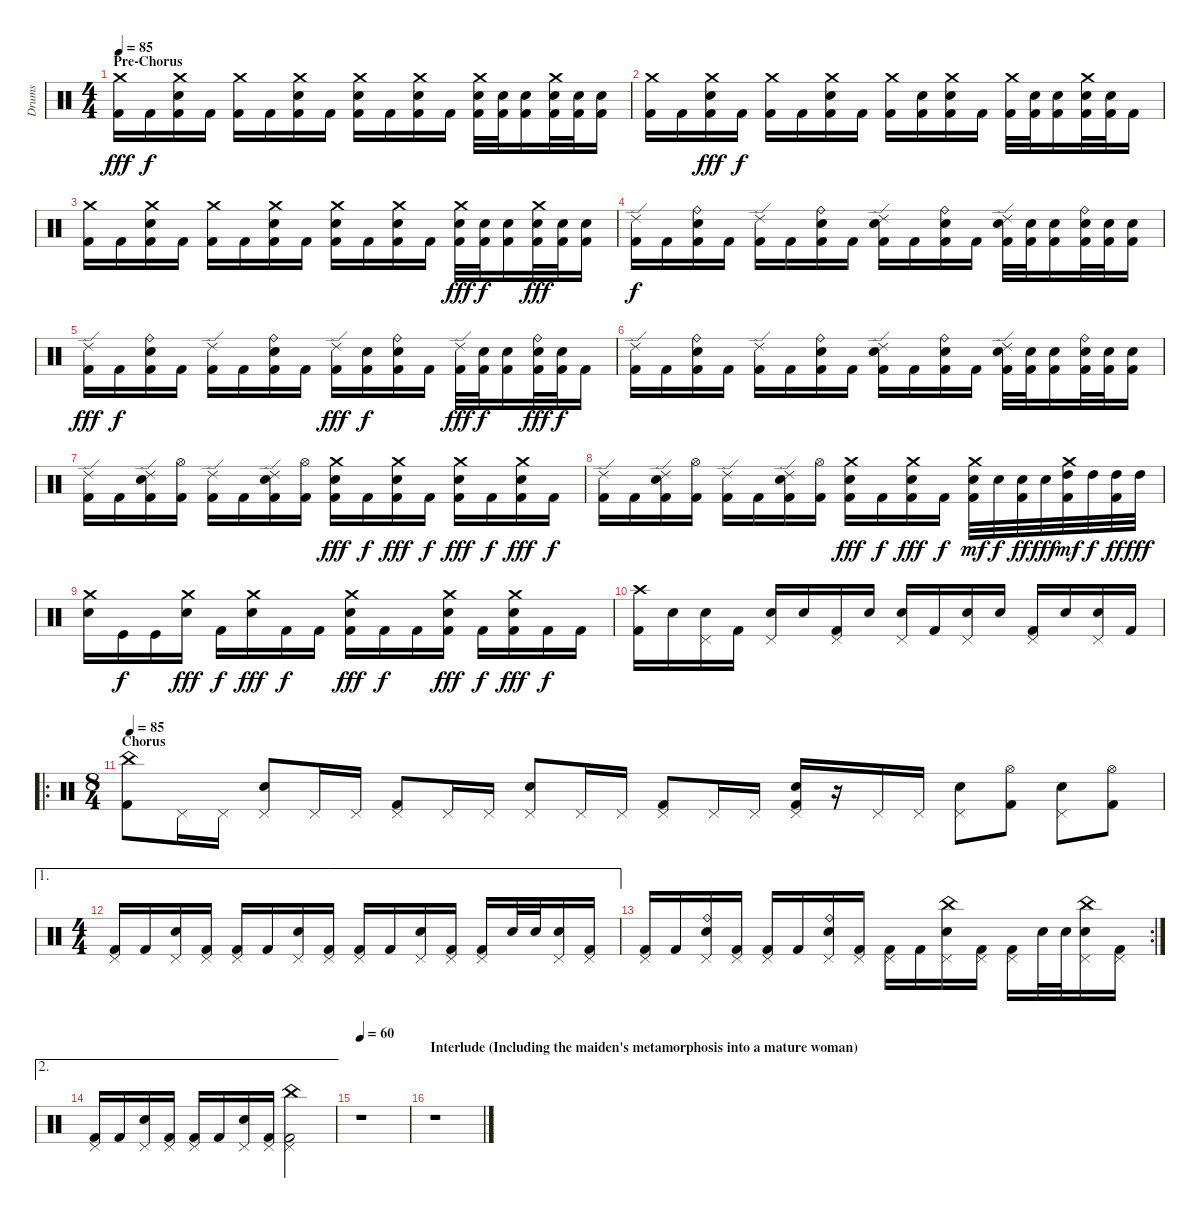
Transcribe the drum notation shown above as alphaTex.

\track ("Drums" "Drums") {instrument percussion}
\staff {score}
\articulation defaults
\ts (4 4)
\section ("" "Pre-Chorus")
\tempo 85
\clef neutral
\ks c
("Crash medium (hit)" "Kick (hit) 2").16{dy fff} "Kick (hit) 2".16{dy f} ("Crash medium (hit)" "Electric Snare (hit)" "Kick (hit) 2").16 "Kick (hit) 2".16 ("Crash medium (hit)" "Kick (hit) 2").16 "Kick (hit) 2".16 ("Crash medium (hit)" "Electric Snare (hit)" "Kick (hit) 2").16 "Kick (hit) 2".16 ("Crash medium (hit)" "Electric Snare (hit)" "Kick (hit) 2").16 "Kick (hit) 2".16 ("Crash medium (hit)" "Electric Snare (hit)" "Kick (hit) 2").16 "Kick (hit) 2".16 ("Crash medium (hit)" "Electric Snare (hit)" "Kick (hit) 2").32 ("Electric Snare (hit)" "Kick (hit) 2").32 ("Electric Snare (hit)" "Kick (hit) 2").16 ("Crash medium (hit)" "Electric Snare (hit)" "Kick (hit) 2").32 ("Electric Snare (hit)" "Kick (hit) 2").32 ("Electric Snare (hit)" "Kick (hit) 2").16 |
("Crash medium (hit)" "Kick (hit) 2").16 "Kick (hit) 2".16 ("Crash medium (hit)" "Electric Snare (hit)" "Kick (hit) 2").16{dy fff} "Kick (hit) 2".16{dy f} ("Crash medium (hit)" "Kick (hit) 2").16 "Kick (hit) 2".16 ("Crash medium (hit)" "Electric Snare (hit)" "Kick (hit) 2").16 "Kick (hit) 2".16 ("Crash medium (hit)" "Kick (hit) 2").16 ("Electric Snare (hit)" "Kick (hit) 2").16 ("Crash medium (hit)" "Electric Snare (hit)" "Kick (hit) 2").16 "Kick (hit) 2".16 ("Crash medium (hit)" "Kick (hit) 2").32 ("Electric Snare (hit)" "Kick (hit) 2").32 ("Electric Snare (hit)" "Kick (hit) 2").16 ("Crash medium (hit)" "Electric Snare (hit)" "Kick (hit) 2").32 ("Electric Snare (hit)" "Kick (hit) 2").32 "Kick (hit) 2".16 |
("Crash medium (hit)" "Kick (hit) 2").16 "Kick (hit) 2".16 ("Crash medium (hit)" "Electric Snare (hit)" "Kick (hit) 2").16 "Kick (hit) 2".16 ("Crash medium (hit)" "Kick (hit) 2").16 "Kick (hit) 2".16 ("Crash medium (hit)" "Electric Snare (hit)" "Kick (hit) 2").16 "Kick (hit) 2".16 ("Crash medium (hit)" "Electric Snare (hit)" "Kick (hit) 2").16 "Kick (hit) 2".16 ("Crash medium (hit)" "Electric Snare (hit)" "Kick (hit) 2").16 "Kick (hit) 2".16 ("Crash medium (hit)" "Electric Snare (hit)" "Kick (hit) 2").32{dy fff} ("Electric Snare (hit)" "Kick (hit) 2").32{dy f} ("Electric Snare (hit)" "Kick (hit) 2").16 ("Crash medium (hit)" "Electric Snare (hit)" "Kick (hit) 2").32{dy fff} ("Electric Snare (hit)" "Kick (hit) 2").32 ("Electric Snare (hit)" "Kick (hit) 2").16 |
("Ride (edge) 2" "Kick (hit) 2").16{dy f} "Kick (hit) 2".16 ("Ride (bell)" "Electric Snare (hit)" "Kick (hit) 2").16 "Kick (hit) 2".16 ("Ride (edge) 2" "Kick (hit) 2").16 "Kick (hit) 2".16 ("Ride (bell)" "Electric Snare (hit)" "Kick (hit) 2").16 "Kick (hit) 2".16 ("Ride (edge) 2" "Electric Snare (hit)" "Kick (hit) 2").16 "Kick (hit) 2".16 ("Ride (bell)" "Electric Snare (hit)" "Kick (hit) 2").16 "Kick (hit) 2".16 ("Ride (edge) 2" "Electric Snare (hit)" "Kick (hit) 2").32 ("Electric Snare (hit)" "Kick (hit) 2").32 ("Electric Snare (hit)" "Kick (hit) 2").16 ("Ride (bell)" "Electric Snare (hit)" "Kick (hit) 2").32 ("Electric Snare (hit)" "Kick (hit) 2").32 ("Electric Snare (hit)" "Kick (hit) 2").16 |
("Ride (edge) 2" "Kick (hit) 2").16{dy fff} "Kick (hit) 2".16{dy f} ("Ride (bell)" "Electric Snare (hit)" "Kick (hit) 2").16 "Kick (hit) 2".16 ("Ride (edge) 2" "Kick (hit) 2").16 "Kick (hit) 2".16 ("Ride (bell)" "Electric Snare (hit)" "Kick (hit) 2").16 "Kick (hit) 2".16 ("Ride (edge) 2" "Kick (hit) 2").16{dy fff} ("Electric Snare (hit)" "Kick (hit) 2").16{dy f} ("Ride (bell)" "Electric Snare (hit)" "Kick (hit) 2").16 "Kick (hit) 2".16 ("Ride (edge) 2" "Kick (hit) 2").32{dy fff} ("Electric Snare (hit)" "Kick (hit) 2").32{dy f} ("Electric Snare (hit)" "Kick (hit) 2").16 ("Ride (bell)" "Electric Snare (hit)" "Kick (hit) 2").32{dy fff} ("Electric Snare (hit)" "Kick (hit) 2").32{dy f} "Kick (hit) 2".16 |
("Ride (edge) 2" "Kick (hit) 2").16 "Kick (hit) 2".16 ("Ride (bell)" "Electric Snare (hit)" "Kick (hit) 2").16 "Kick (hit) 2".16 ("Ride (edge) 2" "Kick (hit) 2").16 "Kick (hit) 2".16 ("Ride (bell)" "Electric Snare (hit)" "Kick (hit) 2").16 "Kick (hit) 2".16 ("Ride (edge) 2" "Electric Snare (hit)" "Kick (hit) 2").16 "Kick (hit) 2".16 ("Ride (bell)" "Electric Snare (hit)" "Kick (hit) 2").16 "Kick (hit) 2".16 ("Ride (edge) 2" "Electric Snare (hit)" "Kick (hit) 2").32 ("Electric Snare (hit)" "Kick (hit) 2").32 ("Electric Snare (hit)" "Kick (hit) 2").16 ("Ride (bell)" "Electric Snare (hit)" "Kick (hit) 2").32 ("Electric Snare (hit)" "Kick (hit) 2").32 ("Electric Snare (hit)" "Kick (hit) 2").16 |
("Ride (edge) 2" "Kick (hit) 2").16 "Kick (hit) 2".16 ("Ride (edge) 2" "Electric Snare (hit)" "Kick (hit) 2").16 ("Hi-Hat (open)" "Kick (hit) 2").16 ("Ride (edge) 2" "Kick (hit) 2").16 "Kick (hit) 2".16 ("Ride (edge) 2" "Electric Snare (hit)" "Kick (hit) 2").16 ("Hi-Hat (open)" "Kick (hit) 2").16 ("Crash medium (hit)" "Electric Snare (hit)" "Kick (hit) 2").16{dy fff} "Kick (hit) 2".16{dy f} ("Crash medium (hit)" "Electric Snare (hit)" "Kick (hit) 2").16{dy fff} "Kick (hit) 2".16{dy f} ("Crash medium (hit)" "Electric Snare (hit)" "Kick (hit) 2").16{dy fff} "Kick (hit) 2".16{dy f} ("Crash medium (hit)" "Electric Snare (hit)" "Kick (hit) 2").16{dy fff} "Kick (hit) 2".16{dy f} |
("Ride (edge) 2" "Kick (hit) 2").16 "Kick (hit) 2".16 ("Ride (edge) 2" "Electric Snare (hit)" "Kick (hit) 2").16 ("Hi-Hat (open)" "Kick (hit) 2").16 ("Ride (edge) 2" "Kick (hit) 2").16 "Kick (hit) 2".16 ("Ride (edge) 2" "Electric Snare (hit)" "Kick (hit) 2").16 ("Hi-Hat (open)" "Kick (hit) 2").16 ("Crash medium (hit)" "Electric Snare (hit)" "Kick (hit) 2").16{dy fff} "Kick (hit) 2".16{dy f} ("Crash medium (hit)" "Electric Snare (hit)" "Kick (hit) 2").16{dy fff} "Kick (hit) 2".16{dy f} ("Crash medium (hit)" "Electric Snare (hit)" "Kick (hit) 2").32{dy mf} "Electric Snare (hit)".32{dy f} ("Electric Snare (hit)" "Kick (hit) 2").32{dy ff} "Electric Snare (hit)".32{dy fff} ("Crash medium (hit)" "High Tom (hit)" "Kick (hit) 2").32{dy mf} "High Tom (hit)".32{dy f} ("High Tom (hit)" "Kick (hit) 2").32{dy ff} "High Tom (hit)".32{dy fff} |
("Crash medium (hit)" "Electric Snare (hit)").16 "Kick (hit)".16{dy f} "Kick (hit)".16 ("Crash medium (hit)" "Electric Snare (hit)").16{dy fff} "Kick (hit) 2".16{dy f} ("Crash medium (hit)" "Electric Snare (hit)").16{dy fff} "Kick (hit) 2".16{dy f} "Kick (hit) 2".16 ("Crash medium (hit)" "Electric Snare (hit)" "Kick (hit) 2").16{dy fff} "Kick (hit) 2".16{dy f} "Kick (hit) 2".16 ("Crash medium (hit)" "Electric Snare (hit)" "Kick (hit) 2").16{dy fff} "Kick (hit) 2".16{dy f} ("Crash medium (hit)" "Electric Snare (hit)" "Kick (hit) 2").16{dy fff} "Kick (hit) 2".16{dy f} "Kick (hit) 2".16 |
("Crash high (hit)" "Kick (hit) 2").16 "Electric Snare (hit)".16 ("Pedal Hi-Hat (hit)" "Electric Snare (hit)").16 "Kick (hit) 2".16 ("Pedal Hi-Hat (hit)" "Electric Snare (hit)").16 "Electric Snare (hit)".16 ("Pedal Hi-Hat (hit)" "Kick (hit) 2").16 "Electric Snare (hit)".16 ("Pedal Hi-Hat (hit)" "Electric Snare (hit)").16 "Kick (hit) 2".16 ("Pedal Hi-Hat (hit)" "Electric Snare (hit)").16 "Electric Snare (hit)".16 ("Pedal Hi-Hat (hit)" "Kick (hit) 2").16 "Electric Snare (hit)".16 ("Pedal Hi-Hat (hit)" "Electric Snare (hit)").16 "Kick (hit) 2".16 |
\ro
\ts (8 4)
\section ("" "Chorus")
\tempo 85
("China (hit)" "Kick (hit) 2").8 "Pedal Hi-Hat (hit)".16 "Pedal Hi-Hat (hit)".16 ("Pedal Hi-Hat (hit)" "Electric Snare (hit)").8 "Pedal Hi-Hat (hit)".16 "Pedal Hi-Hat (hit)".16 ("Pedal Hi-Hat (hit)" "Kick (hit) 2").8 "Pedal Hi-Hat (hit)".16 "Pedal Hi-Hat (hit)".16 ("Pedal Hi-Hat (hit)" "Electric Snare (hit)").8 "Pedal Hi-Hat (hit)".16 "Pedal Hi-Hat (hit)".16 ("Pedal Hi-Hat (hit)" "Kick (hit) 2").8 "Pedal Hi-Hat (hit)".16 "Pedal Hi-Hat (hit)".16 ("Pedal Hi-Hat (hit)" "Electric Snare (hit)" "Kick (hit) 2").16 r.16 "Pedal Hi-Hat (hit)".16 "Pedal Hi-Hat (hit)".16 ("Pedal Hi-Hat (hit)" "Electric Snare (hit)").8 ("Hi-Hat (open)" "Kick (hit) 2").8 ("Pedal Hi-Hat (hit)" "Electric Snare (hit)").8 ("Hi-Hat (open)" "Kick (hit) 2").8 |
\ae 1
\ts (4 4)
("Pedal Hi-Hat (hit)" "Kick (hit) 2").16 "Kick (hit) 2".16 ("Pedal Hi-Hat (hit)" "Electric Snare (hit)").16 ("Pedal Hi-Hat (hit)" "Kick (hit) 2").16 ("Pedal Hi-Hat (hit)" "Kick (hit) 2").16 "Kick (hit) 2".16 ("Pedal Hi-Hat (hit)" "Electric Snare (hit)").16 ("Pedal Hi-Hat (hit)" "Kick (hit) 2").16 ("Pedal Hi-Hat (hit)" "Kick (hit) 2").16 "Kick (hit) 2".16 ("Pedal Hi-Hat (hit)" "Electric Snare (hit)").16 ("Pedal Hi-Hat (hit)" "Kick (hit) 2").16 ("Pedal Hi-Hat (hit)" "Kick (hit) 2").16 "Electric Snare (hit)".32 "Electric Snare (hit)".32 ("Pedal Hi-Hat (hit)" "Electric Snare (hit)").16 ("Pedal Hi-Hat (hit)" "Kick (hit) 2").16 |
\rc 2
("Pedal Hi-Hat (hit)" "Kick (hit) 2").16 "Kick (hit) 2".16 ("Ride (bell)" "Pedal Hi-Hat (hit)" "Electric Snare (hit)").16 ("Pedal Hi-Hat (hit)" "Kick (hit) 2").16 ("Pedal Hi-Hat (hit)" "Kick (hit) 2").16 "Kick (hit) 2".16 ("Ride (bell)" "Pedal Hi-Hat (hit)" "Electric Snare (hit)").16 ("Pedal Hi-Hat (hit)" "Kick (hit) 2").16 ("Pedal Hi-Hat (hit)" "Kick (hit) 2").16 "Kick (hit) 2".16 ("China (hit)" "Pedal Hi-Hat (hit)" "Electric Snare (hit)").16 ("Pedal Hi-Hat (hit)" "Kick (hit) 2").16 ("Pedal Hi-Hat (hit)" "Kick (hit) 2").16 "Electric Snare (hit)".32 "Electric Snare (hit)".32 ("China (hit)" "Pedal Hi-Hat (hit)" "Electric Snare (hit)").16 ("Pedal Hi-Hat (hit)" "Kick (hit) 2").16 |
\ae 2
("Pedal Hi-Hat (hit)" "Kick (hit) 2").16 "Kick (hit) 2".16 ("Pedal Hi-Hat (hit)" "Electric Snare (hit)").16 ("Pedal Hi-Hat (hit)" "Kick (hit) 2").16 ("Pedal Hi-Hat (hit)" "Kick (hit) 2").16 "Kick (hit) 2".16 ("Pedal Hi-Hat (hit)" "Electric Snare (hit)").16 ("Pedal Hi-Hat (hit)" "Kick (hit) 2").16 ("China (hit)" "Pedal Hi-Hat (hit)" "Kick (hit) 2").2{volume 16} |
\tempo 60
r.1 |
\section ("" "Interlude (Including the maiden's metamorphosis into a mature woman)")
r.1
